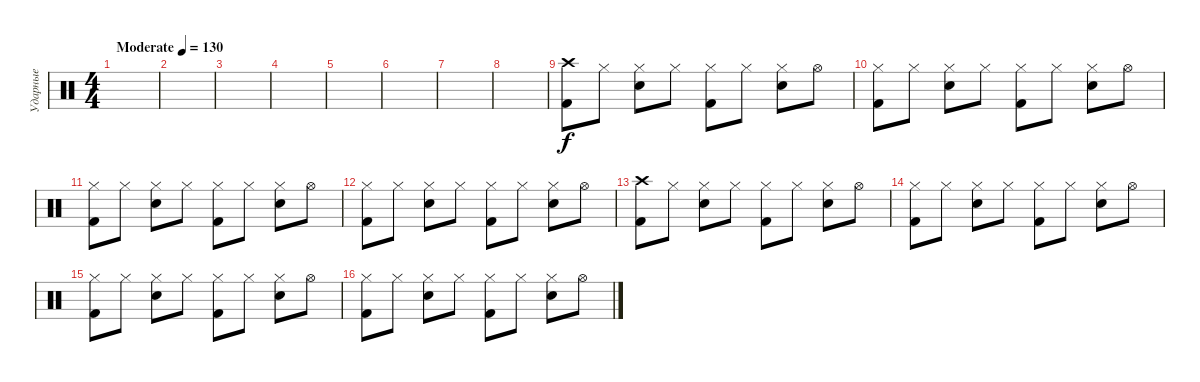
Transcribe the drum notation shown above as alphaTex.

\track ("Ударные" "Ударные") {instrument percussion}
\staff {score}
\articulation defaults
\ts (4 4)
\tempo (130 "Moderate")
\clef neutral
\ks c
|
|
|
|
|
|
|
|
("Crash high (hit)" "Kick (hit) 2").8 "Hi-Hat (closed)".8 ("Hi-Hat (closed)" "Electric Snare (hit)").8 "Hi-Hat (closed)".8 ("Hi-Hat (closed)" "Kick (hit) 2").8 "Hi-Hat (closed)".8 ("Hi-Hat (closed)" "Electric Snare (hit)").8 "Hi-Hat (open)".8 |
("Hi-Hat (closed)" "Kick (hit) 2").8 "Hi-Hat (closed)".8 ("Hi-Hat (closed)" "Electric Snare (hit)").8 "Hi-Hat (closed)".8 ("Hi-Hat (closed)" "Kick (hit) 2").8 "Hi-Hat (closed)".8 ("Hi-Hat (closed)" "Electric Snare (hit)").8 "Hi-Hat (open)".8 |
("Hi-Hat (closed)" "Kick (hit) 2").8 "Hi-Hat (closed)".8 ("Hi-Hat (closed)" "Electric Snare (hit)").8 "Hi-Hat (closed)".8 ("Hi-Hat (closed)" "Kick (hit) 2").8 "Hi-Hat (closed)".8 ("Hi-Hat (closed)" "Electric Snare (hit)").8 "Hi-Hat (open)".8 |
("Hi-Hat (closed)" "Kick (hit) 2").8 "Hi-Hat (closed)".8 ("Hi-Hat (closed)" "Electric Snare (hit)").8 "Hi-Hat (closed)".8 ("Hi-Hat (closed)" "Kick (hit) 2").8 "Hi-Hat (closed)".8 ("Hi-Hat (closed)" "Electric Snare (hit)").8 "Hi-Hat (open)".8 |
("Crash high (hit)" "Kick (hit) 2").8 "Hi-Hat (closed)".8 ("Hi-Hat (closed)" "Electric Snare (hit)").8 "Hi-Hat (closed)".8 ("Hi-Hat (closed)" "Kick (hit) 2").8 "Hi-Hat (closed)".8 ("Hi-Hat (closed)" "Electric Snare (hit)").8 "Hi-Hat (open)".8 |
("Hi-Hat (closed)" "Kick (hit) 2").8 "Hi-Hat (closed)".8 ("Hi-Hat (closed)" "Electric Snare (hit)").8 "Hi-Hat (closed)".8 ("Hi-Hat (closed)" "Kick (hit) 2").8 "Hi-Hat (closed)".8 ("Hi-Hat (closed)" "Electric Snare (hit)").8 "Hi-Hat (open)".8 |
("Hi-Hat (closed)" "Kick (hit) 2").8 "Hi-Hat (closed)".8 ("Hi-Hat (closed)" "Electric Snare (hit)").8 "Hi-Hat (closed)".8 ("Hi-Hat (closed)" "Kick (hit) 2").8 "Hi-Hat (closed)".8 ("Hi-Hat (closed)" "Electric Snare (hit)").8 "Hi-Hat (open)".8 |
("Hi-Hat (closed)" "Kick (hit) 2").8 "Hi-Hat (closed)".8 ("Hi-Hat (closed)" "Electric Snare (hit)").8 "Hi-Hat (closed)".8 ("Hi-Hat (closed)" "Kick (hit) 2").8 "Hi-Hat (closed)".8 ("Hi-Hat (closed)" "Electric Snare (hit)").8 "Hi-Hat (open)".8
